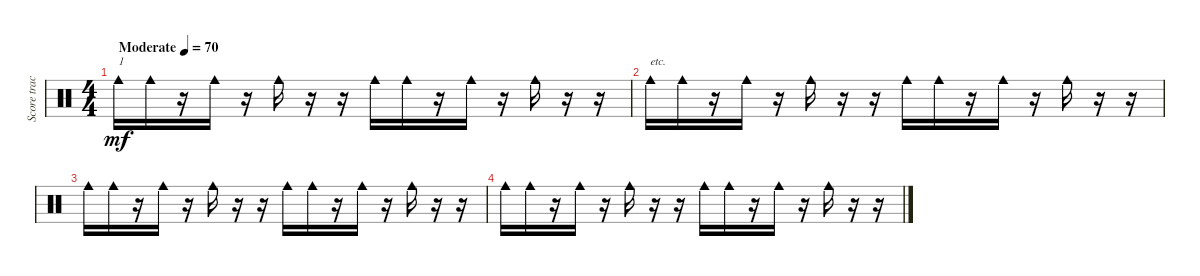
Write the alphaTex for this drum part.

\track ("Score track 2" "Score trac") {instrument percussion}
\staff {score}
\articulation defaults
\ts (4 4)
\tempo (70 "Moderate")
\clef neutral
\ks c "Cowbell medium (hit)".16{txt "1" dy mf} "Cowbell medium (hit)".16
r.16 "Cowbell medium (hit)".16 r.16 "Cowbell medium (hit)".16 r.16 r.16 "Cowbell medium (hit)".16 "Cowbell medium (hit)".16 r.16 "Cowbell medium (hit)".16 r.16 "Cowbell medium (hit)".16 r.16 r.16 |
"Cowbell medium (hit)".16{txt "etc."} "Cowbell medium (hit)".16 r.16 "Cowbell medium (hit)".16 r.16 "Cowbell medium (hit)".16 r.16 r.16 "Cowbell medium (hit)".16 "Cowbell medium (hit)".16 r.16 "Cowbell medium (hit)".16 r.16 "Cowbell medium (hit)".16 r.16 r.16 |
"Cowbell medium (hit)".16 "Cowbell medium (hit)".16 r.16 "Cowbell medium (hit)".16 r.16 "Cowbell medium (hit)".16 r.16 r.16 "Cowbell medium (hit)".16 "Cowbell medium (hit)".16 r.16 "Cowbell medium (hit)".16 r.16 "Cowbell medium (hit)".16 r.16 r.16 |
"Cowbell medium (hit)".16 "Cowbell medium (hit)".16 r.16 "Cowbell medium (hit)".16 r.16 "Cowbell medium (hit)".16 r.16 r.16 "Cowbell medium (hit)".16 "Cowbell medium (hit)".16 r.16 "Cowbell medium (hit)".16 r.16 "Cowbell medium (hit)".16 r.16 r.16
